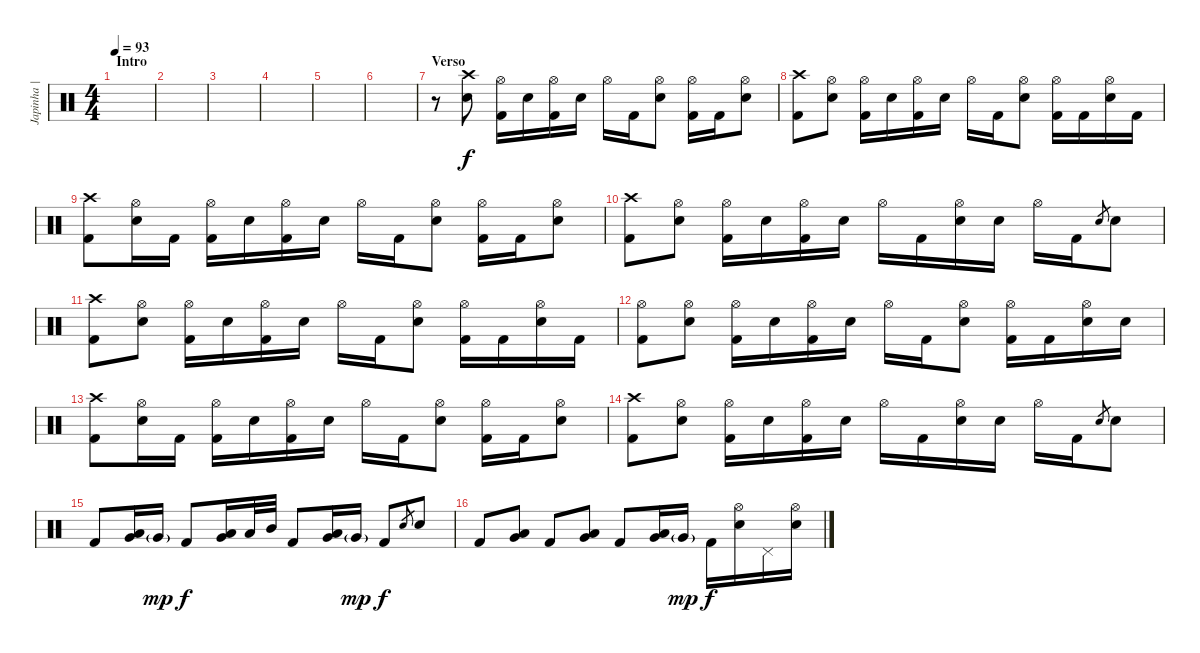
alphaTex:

\track ("Japinha | Bateria" "Japinha | ") {instrument percussion}
\staff {score}
\articulation defaults
\ts (4 4)
\section ("" "Intro")
\tempo 93
\clef neutral
\ks c
|
|
|
|
|
|
\section ("" "Verso")
r.8 ("Crash high (hit)" "Electric Snare (hit)").8 ("Hi-Hat (open)" "Kick (hit) 2").16 "Electric Snare (hit)".16 ("Hi-Hat (open)" "Kick (hit) 2").16 "Electric Snare (hit)".16 "Hi-Hat (open)".16 "Kick (hit) 2".16 ("Hi-Hat (open)" "Electric Snare (hit)").8 ("Hi-Hat (open)" "Kick (hit) 2").16 "Kick (hit) 2".16 ("Hi-Hat (open)" "Electric Snare (hit)").8 |
("Crash high (hit)" "Kick (hit) 2").8 ("Hi-Hat (open)" "Electric Snare (hit)").8 ("Hi-Hat (open)" "Kick (hit) 2").16 "Electric Snare (hit)".16 ("Hi-Hat (open)" "Kick (hit) 2").16 "Electric Snare (hit)".16 "Hi-Hat (open)".16 "Kick (hit) 2".16 ("Hi-Hat (open)" "Electric Snare (hit)").8 ("Hi-Hat (open)" "Kick (hit) 2").16 "Kick (hit) 2".16 ("Hi-Hat (open)" "Electric Snare (hit)").16 "Kick (hit) 2".16 |
("Crash high (hit)" "Kick (hit) 2").8 ("Hi-Hat (open)" "Electric Snare (hit)").16 "Kick (hit) 2".16 ("Hi-Hat (open)" "Kick (hit) 2").16 "Electric Snare (hit)".16 ("Hi-Hat (open)" "Kick (hit) 2").16 "Electric Snare (hit)".16 "Hi-Hat (open)".16 "Kick (hit) 2".16 ("Hi-Hat (open)" "Electric Snare (hit)").8 ("Hi-Hat (open)" "Kick (hit) 2").16 "Kick (hit) 2".16 ("Hi-Hat (open)" "Electric Snare (hit)").8 |
("Crash high (hit)" "Kick (hit) 2").8 ("Hi-Hat (open)" "Electric Snare (hit)").8 ("Hi-Hat (open)" "Kick (hit) 2").16 "Electric Snare (hit)".16 ("Hi-Hat (open)" "Kick (hit) 2").16 "Electric Snare (hit)".16 "Hi-Hat (open)".16 "Kick (hit) 2".16 ("Hi-Hat (open)" "Electric Snare (hit)").16 "Electric Snare (hit)".16 "Hi-Hat (open)".16 "Kick (hit) 2".16 "Electric Snare (hit)".8{gr} "Electric Snare (hit)".8 |
("Crash high (hit)" "Kick (hit) 2").8 ("Hi-Hat (open)" "Electric Snare (hit)").8 ("Hi-Hat (open)" "Kick (hit) 2").16 "Electric Snare (hit)".16 ("Hi-Hat (open)" "Kick (hit) 2").16 "Electric Snare (hit)".16 "Hi-Hat (open)".16 "Kick (hit) 2".16 ("Hi-Hat (open)" "Electric Snare (hit)").8 ("Hi-Hat (open)" "Kick (hit) 2").16 "Kick (hit) 2".16 ("Hi-Hat (open)" "Electric Snare (hit)").16 "Kick (hit) 2".16 |
("Hi-Hat (open)" "Kick (hit) 2").8 ("Hi-Hat (open)" "Electric Snare (hit)").8 ("Hi-Hat (open)" "Kick (hit) 2").16 "Electric Snare (hit)".16 ("Hi-Hat (open)" "Kick (hit) 2").16 "Electric Snare (hit)".16 "Hi-Hat (open)".16 "Kick (hit) 2".16 ("Hi-Hat (open)" "Electric Snare (hit)").8 ("Hi-Hat (open)" "Kick (hit) 2").16 "Kick (hit) 2".16 ("Hi-Hat (open)" "Electric Snare (hit)").16 "Electric Snare (hit)".16 |
("Crash high (hit)" "Kick (hit) 2").8 ("Hi-Hat (open)" "Electric Snare (hit)").16 "Kick (hit) 2".16 ("Hi-Hat (open)" "Kick (hit) 2").16 "Electric Snare (hit)".16 ("Hi-Hat (open)" "Kick (hit) 2").16 "Electric Snare (hit)".16 "Hi-Hat (open)".16 "Kick (hit) 2".16 ("Hi-Hat (open)" "Electric Snare (hit)").8 ("Hi-Hat (open)" "Kick (hit) 2").16 "Kick (hit) 2".16 ("Hi-Hat (open)" "Electric Snare (hit)").8 |
("Crash high (hit)" "Kick (hit) 2").8 ("Hi-Hat (open)" "Electric Snare (hit)").8 ("Hi-Hat (open)" "Kick (hit) 2").16 "Electric Snare (hit)".16 ("Hi-Hat (open)" "Kick (hit) 2").16 "Electric Snare (hit)".16 "Hi-Hat (open)".16 "Kick (hit) 2".16 ("Hi-Hat (open)" "Electric Snare (hit)").16 "Electric Snare (hit)".16 "Hi-Hat (open)".16 "Kick (hit) 2".16 "Electric Snare (hit)".8{gr} "Electric Snare (hit)".8 |
"Kick (hit) 2".8 ("Low Tom (hit)" "Very Low Tom (hit)").16 "Very Low Tom (hit)"{g}.16{dy mp} "Kick (hit) 2".8{dy f} ("Low Tom (hit)" "Very Low Tom (hit)").16 "Low Tom (hit)".32 "Mid Tom (hit)".32 "Kick (hit) 2".8 ("Low Tom (hit)" "Very Low Tom (hit)").16 "Very Low Tom (hit)"{g}.16{dy mp} "Kick (hit) 2".8{dy f} "Electric Snare (hit)".8{gr} "Electric Snare (hit)".8 |
"Kick (hit) 2".8 ("Low Tom (hit)" "Very Low Tom (hit)").8 "Kick (hit) 2".8 ("Low Tom (hit)" "Very Low Tom (hit)").8 "Kick (hit) 2".8 ("Low Tom (hit)" "Very Low Tom (hit)").16 "Very Low Tom (hit)"{g}.16{dy mp} "Kick (hit) 2".16{dy f} ("Hi-Hat (open)" "Electric Snare (hit)").16 "Pedal Hi-Hat (hit)".16 ("Hi-Hat (open)" "Electric Snare (hit)").16
